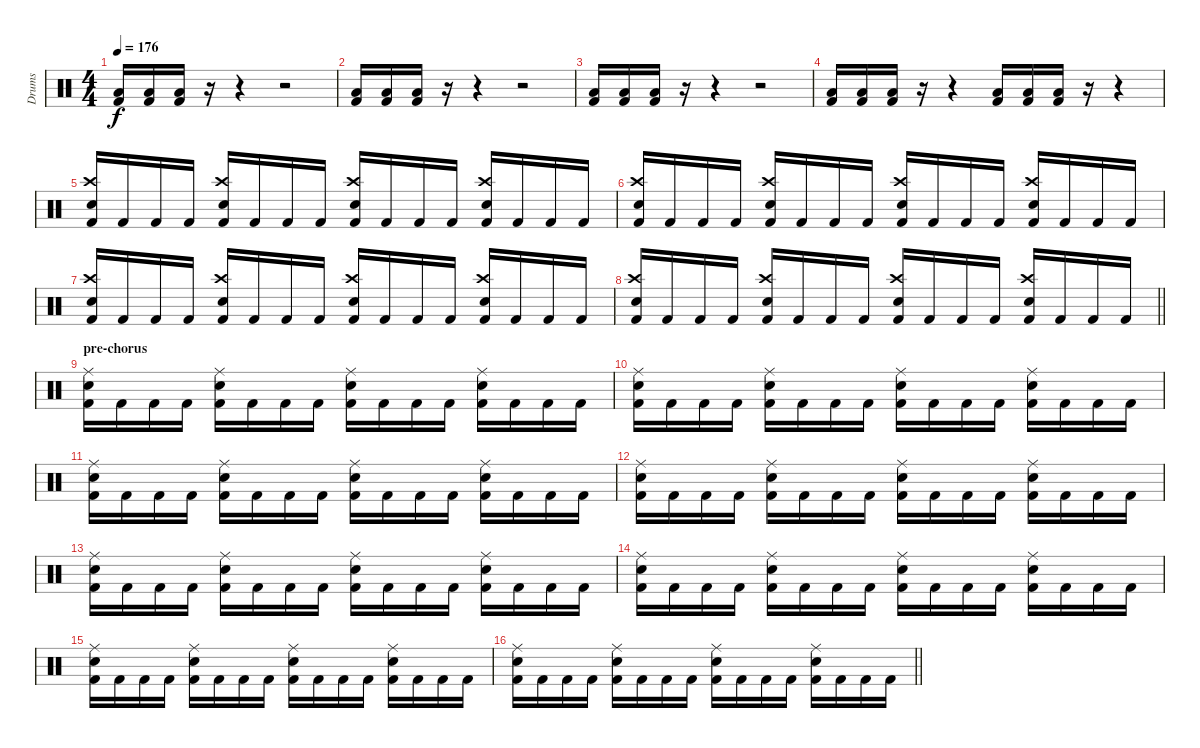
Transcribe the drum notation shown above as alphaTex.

\track ("Drums" "Drums") {instrument percussion}
\staff {score}
\articulation defaults
\ts (4 4)
\tempo 176
\clef neutral
\ks c
("Low Tom (hit)" "Kick (hit) 2").16{dy f} ("Low Tom (hit)" "Kick (hit) 2").16 ("Low Tom (hit)" "Kick (hit) 2").16 r.16 r.4 r.2 |
("Low Tom (hit)" "Kick (hit) 2").16 ("Low Tom (hit)" "Kick (hit) 2").16 ("Low Tom (hit)" "Kick (hit) 2").16 r.16 r.4 r.2 |
("Low Tom (hit)" "Kick (hit) 2").16 ("Low Tom (hit)" "Kick (hit) 2").16 ("Low Tom (hit)" "Kick (hit) 2").16 r.16 r.4 r.2 |
("Low Tom (hit)" "Kick (hit) 2").16 ("Low Tom (hit)" "Kick (hit) 2").16 ("Low Tom (hit)" "Kick (hit) 2").16 r.16 r.4 ("Low Tom (hit)" "Kick (hit) 2").16 ("Low Tom (hit)" "Kick (hit) 2").16 ("Low Tom (hit)" "Kick (hit) 2").16 r.16 r.4 |
("Crash high (hit)" "Electric Snare (hit)" "Kick (hit) 2").16 "Kick (hit) 2".16 "Kick (hit) 2".16 "Kick (hit) 2".16 ("Crash high (hit)" "Electric Snare (hit)" "Kick (hit) 2").16 "Kick (hit) 2".16 "Kick (hit) 2".16 "Kick (hit) 2".16 ("Crash high (hit)" "Electric Snare (hit)" "Kick (hit) 2").16 "Kick (hit) 2".16 "Kick (hit) 2".16 "Kick (hit) 2".16 ("Crash high (hit)" "Electric Snare (hit)" "Kick (hit) 2").16 "Kick (hit) 2".16 "Kick (hit) 2".16 "Kick (hit) 2".16 |
("Crash high (hit)" "Electric Snare (hit)" "Kick (hit) 2").16 "Kick (hit) 2".16 "Kick (hit) 2".16 "Kick (hit) 2".16 ("Crash high (hit)" "Electric Snare (hit)" "Kick (hit) 2").16 "Kick (hit) 2".16 "Kick (hit) 2".16 "Kick (hit) 2".16 ("Crash high (hit)" "Electric Snare (hit)" "Kick (hit) 2").16 "Kick (hit) 2".16 "Kick (hit) 2".16 "Kick (hit) 2".16 ("Crash high (hit)" "Electric Snare (hit)" "Kick (hit) 2").16 "Kick (hit) 2".16 "Kick (hit) 2".16 "Kick (hit) 2".16 |
("Crash high (hit)" "Electric Snare (hit)" "Kick (hit) 2").16 "Kick (hit) 2".16 "Kick (hit) 2".16 "Kick (hit) 2".16 ("Crash high (hit)" "Electric Snare (hit)" "Kick (hit) 2").16 "Kick (hit) 2".16 "Kick (hit) 2".16 "Kick (hit) 2".16 ("Crash high (hit)" "Electric Snare (hit)" "Kick (hit) 2").16 "Kick (hit) 2".16 "Kick (hit) 2".16 "Kick (hit) 2".16 ("Crash high (hit)" "Electric Snare (hit)" "Kick (hit) 2").16 "Kick (hit) 2".16 "Kick (hit) 2".16 "Kick (hit) 2".16 |
\barLineRight lightlight
("Crash high (hit)" "Electric Snare (hit)" "Kick (hit) 2").16 "Kick (hit) 2".16 "Kick (hit) 2".16 "Kick (hit) 2".16 ("Crash high (hit)" "Electric Snare (hit)" "Kick (hit) 2").16 "Kick (hit) 2".16 "Kick (hit) 2".16 "Kick (hit) 2".16 ("Crash high (hit)" "Electric Snare (hit)" "Kick (hit) 2").16 "Kick (hit) 2".16 "Kick (hit) 2".16 "Kick (hit) 2".16 ("Crash high (hit)" "Electric Snare (hit)" "Kick (hit) 2").16 "Kick (hit) 2".16 "Kick (hit) 2".16 "Kick (hit) 2".16 |
\section ("" "pre-chorus")
("Ride (middle)" "Electric Snare (hit)" "Kick (hit) 2").16 "Kick (hit) 2".16 "Kick (hit) 2".16 "Kick (hit) 2".16 ("Ride (middle)" "Electric Snare (hit)" "Kick (hit) 2").16 "Kick (hit) 2".16 "Kick (hit) 2".16 "Kick (hit) 2".16 ("Ride (middle)" "Electric Snare (hit)" "Kick (hit) 2").16 "Kick (hit) 2".16 "Kick (hit) 2".16 "Kick (hit) 2".16 ("Ride (middle)" "Electric Snare (hit)" "Kick (hit) 2").16 "Kick (hit) 2".16 "Kick (hit) 2".16 "Kick (hit) 2".16 |
("Ride (middle)" "Electric Snare (hit)" "Kick (hit) 2").16 "Kick (hit) 2".16 "Kick (hit) 2".16 "Kick (hit) 2".16 ("Ride (middle)" "Electric Snare (hit)" "Kick (hit) 2").16 "Kick (hit) 2".16 "Kick (hit) 2".16 "Kick (hit) 2".16 ("Ride (middle)" "Electric Snare (hit)" "Kick (hit) 2").16 "Kick (hit) 2".16 "Kick (hit) 2".16 "Kick (hit) 2".16 ("Ride (middle)" "Electric Snare (hit)" "Kick (hit) 2").16 "Kick (hit) 2".16 "Kick (hit) 2".16 "Kick (hit) 2".16 |
("Ride (middle)" "Electric Snare (hit)" "Kick (hit) 2").16 "Kick (hit) 2".16 "Kick (hit) 2".16 "Kick (hit) 2".16 ("Ride (middle)" "Electric Snare (hit)" "Kick (hit) 2").16 "Kick (hit) 2".16 "Kick (hit) 2".16 "Kick (hit) 2".16 ("Ride (middle)" "Electric Snare (hit)" "Kick (hit) 2").16 "Kick (hit) 2".16 "Kick (hit) 2".16 "Kick (hit) 2".16 ("Ride (middle)" "Electric Snare (hit)" "Kick (hit) 2").16 "Kick (hit) 2".16 "Kick (hit) 2".16 "Kick (hit) 2".16 |
("Ride (middle)" "Electric Snare (hit)" "Kick (hit) 2").16 "Kick (hit) 2".16 "Kick (hit) 2".16 "Kick (hit) 2".16 ("Ride (middle)" "Electric Snare (hit)" "Kick (hit) 2").16 "Kick (hit) 2".16 "Kick (hit) 2".16 "Kick (hit) 2".16 ("Ride (middle)" "Electric Snare (hit)" "Kick (hit) 2").16 "Kick (hit) 2".16 "Kick (hit) 2".16 "Kick (hit) 2".16 ("Ride (middle)" "Electric Snare (hit)" "Kick (hit) 2").16 "Kick (hit) 2".16 "Kick (hit) 2".16 "Kick (hit) 2".16 |
("Ride (middle)" "Electric Snare (hit)" "Kick (hit) 2").16 "Kick (hit) 2".16 "Kick (hit) 2".16 "Kick (hit) 2".16 ("Ride (middle)" "Electric Snare (hit)" "Kick (hit) 2").16 "Kick (hit) 2".16 "Kick (hit) 2".16 "Kick (hit) 2".16 ("Ride (middle)" "Electric Snare (hit)" "Kick (hit) 2").16 "Kick (hit) 2".16 "Kick (hit) 2".16 "Kick (hit) 2".16 ("Ride (middle)" "Electric Snare (hit)" "Kick (hit) 2").16 "Kick (hit) 2".16 "Kick (hit) 2".16 "Kick (hit) 2".16 |
("Ride (middle)" "Electric Snare (hit)" "Kick (hit) 2").16 "Kick (hit) 2".16 "Kick (hit) 2".16 "Kick (hit) 2".16 ("Ride (middle)" "Electric Snare (hit)" "Kick (hit) 2").16 "Kick (hit) 2".16 "Kick (hit) 2".16 "Kick (hit) 2".16 ("Ride (middle)" "Electric Snare (hit)" "Kick (hit) 2").16 "Kick (hit) 2".16 "Kick (hit) 2".16 "Kick (hit) 2".16 ("Ride (middle)" "Electric Snare (hit)" "Kick (hit) 2").16 "Kick (hit) 2".16 "Kick (hit) 2".16 "Kick (hit) 2".16 |
("Ride (middle)" "Electric Snare (hit)" "Kick (hit) 2").16 "Kick (hit) 2".16 "Kick (hit) 2".16 "Kick (hit) 2".16 ("Ride (middle)" "Electric Snare (hit)" "Kick (hit) 2").16 "Kick (hit) 2".16 "Kick (hit) 2".16 "Kick (hit) 2".16 ("Ride (middle)" "Electric Snare (hit)" "Kick (hit) 2").16 "Kick (hit) 2".16 "Kick (hit) 2".16 "Kick (hit) 2".16 ("Ride (middle)" "Electric Snare (hit)" "Kick (hit) 2").16 "Kick (hit) 2".16 "Kick (hit) 2".16 "Kick (hit) 2".16 |
\barLineRight lightlight
("Ride (middle)" "Electric Snare (hit)" "Kick (hit) 2").16 "Kick (hit) 2".16 "Kick (hit) 2".16 "Kick (hit) 2".16 ("Ride (middle)" "Electric Snare (hit)" "Kick (hit) 2").16 "Kick (hit) 2".16 "Kick (hit) 2".16 "Kick (hit) 2".16 ("Ride (middle)" "Electric Snare (hit)" "Kick (hit) 2").16 "Kick (hit) 2".16 "Kick (hit) 2".16 "Kick (hit) 2".16 ("Ride (middle)" "Electric Snare (hit)" "Kick (hit) 2").16 "Kick (hit) 2".16 "Kick (hit) 2".16 "Kick (hit) 2".16
